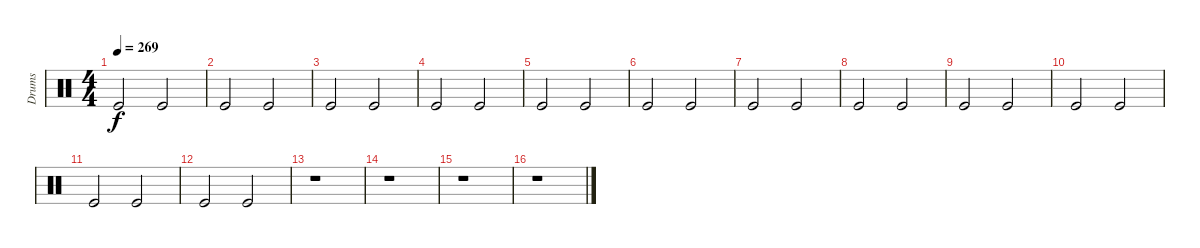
\track ("Drums" "Drums") {instrument percussion}
\staff {score}
\articulation defaults
\ts (4 4)
\tempo 269
\clef neutral
\ks c "Kick (hit)".2{dy f} "Kick (hit)".2
|
"Kick (hit)".2 "Kick (hit)".2 |
"Kick (hit)".2 "Kick (hit)".2 |
"Kick (hit)".2 "Kick (hit)".2 |
"Kick (hit)".2 "Kick (hit)".2 |
"Kick (hit)".2 "Kick (hit)".2 |
"Kick (hit)".2 "Kick (hit)".2 |
"Kick (hit)".2 "Kick (hit)".2 |
"Kick (hit)".2 "Kick (hit)".2 |
"Kick (hit)".2 "Kick (hit)".2 |
"Kick (hit)".2 "Kick (hit)".2 |
"Kick (hit)".2 "Kick (hit)".2 |
r.1 |
r.1 |
r.1 |
r.1
